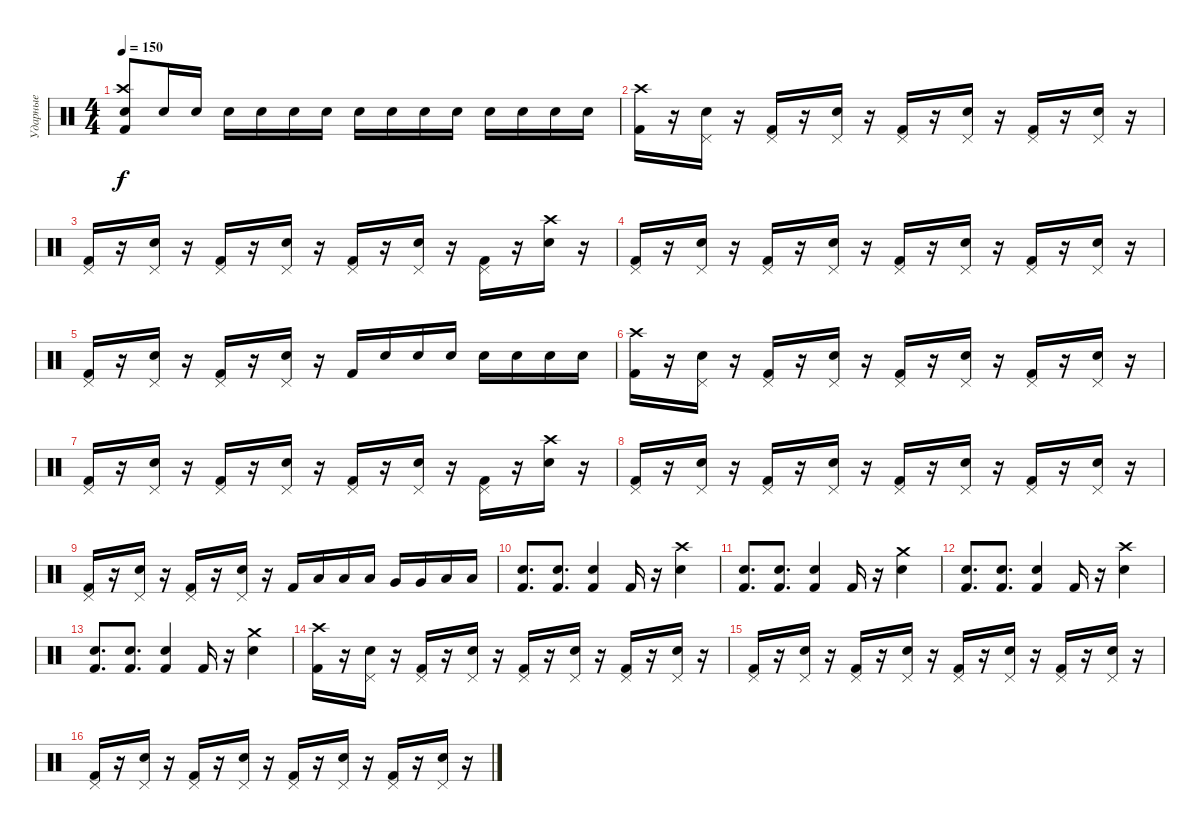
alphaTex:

\track ("Ударные" "Ударные") {instrument percussion}
\staff {score}
\articulation defaults
\ts (4 4)
\tempo 150
\clef neutral
\ks c
("Electric Snare (hit)" "Crash high (hit)" "Kick (hit) 2").8{dy f} "Electric Snare (hit)".16 "Electric Snare (hit)".16 "Electric Snare (hit)".16 "Electric Snare (hit)".16 "Electric Snare (hit)".16 "Electric Snare (hit)".16 "Electric Snare (hit)".16 "Electric Snare (hit)".16 "Electric Snare (hit)".16 "Electric Snare (hit)".16 "Electric Snare (hit)".16 "Electric Snare (hit)".16 "Electric Snare (hit)".16 "Electric Snare (hit)".16 |
("Kick (hit) 2" "Crash high (hit)").16 r.16 ("Electric Snare (hit)" "Pedal Hi-Hat (hit)").16 r.16 ("Kick (hit) 2" "Pedal Hi-Hat (hit)").16 r.16 ("Electric Snare (hit)" "Pedal Hi-Hat (hit)").16 r.16 ("Kick (hit) 2" "Pedal Hi-Hat (hit)").16 r.16 ("Electric Snare (hit)" "Pedal Hi-Hat (hit)").16 r.16 ("Kick (hit) 2" "Pedal Hi-Hat (hit)").16 r.16 ("Electric Snare (hit)" "Pedal Hi-Hat (hit)").16 r.16 |
("Kick (hit) 2" "Pedal Hi-Hat (hit)").16 r.16 ("Electric Snare (hit)" "Pedal Hi-Hat (hit)").16 r.16 ("Kick (hit) 2" "Pedal Hi-Hat (hit)").16 r.16 ("Electric Snare (hit)" "Pedal Hi-Hat (hit)").16 r.16 ("Kick (hit) 2" "Pedal Hi-Hat (hit)").16 r.16 ("Electric Snare (hit)" "Pedal Hi-Hat (hit)").16 r.16 ("Kick (hit) 2" "Pedal Hi-Hat (hit)").16 r.16 ("Electric Snare (hit)" "Crash high (hit)").16 r.16 |
("Kick (hit) 2" "Pedal Hi-Hat (hit)").16 r.16 ("Electric Snare (hit)" "Pedal Hi-Hat (hit)").16 r.16 ("Kick (hit) 2" "Pedal Hi-Hat (hit)").16 r.16 ("Electric Snare (hit)" "Pedal Hi-Hat (hit)").16 r.16 ("Kick (hit) 2" "Pedal Hi-Hat (hit)").16 r.16 ("Electric Snare (hit)" "Pedal Hi-Hat (hit)").16 r.16 ("Kick (hit) 2" "Pedal Hi-Hat (hit)").16 r.16 ("Electric Snare (hit)" "Pedal Hi-Hat (hit)").16 r.16 |
("Kick (hit) 2" "Pedal Hi-Hat (hit)").16 r.16 ("Electric Snare (hit)" "Pedal Hi-Hat (hit)").16 r.16 ("Kick (hit) 2" "Pedal Hi-Hat (hit)").16 r.16 ("Electric Snare (hit)" "Pedal Hi-Hat (hit)").16 r.16 "Kick (hit) 2".16 "Electric Snare (hit)".16 "Electric Snare (hit)".16 "Electric Snare (hit)".16 "Electric Snare (hit)".16 "Electric Snare (hit)".16 "Electric Snare (hit)".16 "Electric Snare (hit)".16 |
("Kick (hit) 2" "Crash high (hit)").16 r.16 ("Electric Snare (hit)" "Pedal Hi-Hat (hit)").16 r.16 ("Kick (hit) 2" "Pedal Hi-Hat (hit)").16 r.16 ("Electric Snare (hit)" "Pedal Hi-Hat (hit)").16 r.16 ("Kick (hit) 2" "Pedal Hi-Hat (hit)").16 r.16 ("Electric Snare (hit)" "Pedal Hi-Hat (hit)").16 r.16 ("Kick (hit) 2" "Pedal Hi-Hat (hit)").16 r.16 ("Electric Snare (hit)" "Pedal Hi-Hat (hit)").16 r.16 |
("Kick (hit) 2" "Pedal Hi-Hat (hit)").16 r.16 ("Electric Snare (hit)" "Pedal Hi-Hat (hit)").16 r.16 ("Kick (hit) 2" "Pedal Hi-Hat (hit)").16 r.16 ("Electric Snare (hit)" "Pedal Hi-Hat (hit)").16 r.16 ("Kick (hit) 2" "Pedal Hi-Hat (hit)").16 r.16 ("Electric Snare (hit)" "Pedal Hi-Hat (hit)").16 r.16 ("Kick (hit) 2" "Pedal Hi-Hat (hit)").16 r.16 ("Electric Snare (hit)" "Crash high (hit)").16 r.16 |
("Kick (hit) 2" "Pedal Hi-Hat (hit)").16 r.16 ("Electric Snare (hit)" "Pedal Hi-Hat (hit)").16 r.16 ("Kick (hit) 2" "Pedal Hi-Hat (hit)").16 r.16 ("Electric Snare (hit)" "Pedal Hi-Hat (hit)").16 r.16 ("Kick (hit) 2" "Pedal Hi-Hat (hit)").16 r.16 ("Electric Snare (hit)" "Pedal Hi-Hat (hit)").16 r.16 ("Kick (hit) 2" "Pedal Hi-Hat (hit)").16 r.16 ("Electric Snare (hit)" "Pedal Hi-Hat (hit)").16 r.16 |
("Kick (hit) 2" "Pedal Hi-Hat (hit)").16 r.16 ("Electric Snare (hit)" "Pedal Hi-Hat (hit)").16 r.16 ("Kick (hit) 2" "Pedal Hi-Hat (hit)").16 r.16 ("Electric Snare (hit)" "Pedal Hi-Hat (hit)").16 r.16 "Kick (hit) 2".16 "Low Tom (hit)".16 "Low Tom (hit)".16 "Low Tom (hit)".16 "Very Low Tom (hit)".16 "Very Low Tom (hit)".16 "Low Floor Tom (hit)".16 "Low Floor Tom (hit)".16 |
("Electric Snare (hit)" "Kick (hit) 2").8{d} ("Electric Snare (hit)" "Kick (hit) 2").8{d} ("Electric Snare (hit)" "Kick (hit) 2").4 "Kick (hit) 2".16 r.16 ("Electric Snare (hit)" "Crash high (hit)").4 |
("Electric Snare (hit)" "Kick (hit) 2").8{d} ("Electric Snare (hit)" "Kick (hit) 2").8{d} ("Electric Snare (hit)" "Kick (hit) 2").4 "Kick (hit) 2".16 r.16 ("Electric Snare (hit)" "Crash medium (hit)").4 |
("Electric Snare (hit)" "Kick (hit) 2").8{d} ("Electric Snare (hit)" "Kick (hit) 2").8{d} ("Electric Snare (hit)" "Kick (hit) 2").4 "Kick (hit) 2".16 r.16 ("Electric Snare (hit)" "Crash high (hit)").4 |
("Electric Snare (hit)" "Kick (hit) 2").8{d} ("Electric Snare (hit)" "Kick (hit) 2").8{d} ("Electric Snare (hit)" "Kick (hit) 2").4 "Kick (hit) 2".16 r.16 ("Electric Snare (hit)" "Crash medium (hit)").4 |
("Kick (hit) 2" "Crash high (hit)").16 r.16 ("Electric Snare (hit)" "Pedal Hi-Hat (hit)").16 r.16 ("Kick (hit) 2" "Pedal Hi-Hat (hit)").16 r.16 ("Electric Snare (hit)" "Pedal Hi-Hat (hit)").16 r.16 ("Kick (hit) 2" "Pedal Hi-Hat (hit)").16 r.16 ("Electric Snare (hit)" "Pedal Hi-Hat (hit)").16 r.16 ("Kick (hit) 2" "Pedal Hi-Hat (hit)").16 r.16 ("Electric Snare (hit)" "Pedal Hi-Hat (hit)").16 r.16 |
("Kick (hit) 2" "Pedal Hi-Hat (hit)").16 r.16 ("Electric Snare (hit)" "Pedal Hi-Hat (hit)").16 r.16 ("Kick (hit) 2" "Pedal Hi-Hat (hit)").16 r.16 ("Electric Snare (hit)" "Pedal Hi-Hat (hit)").16 r.16 ("Kick (hit) 2" "Pedal Hi-Hat (hit)").16 r.16 ("Electric Snare (hit)" "Pedal Hi-Hat (hit)").16 r.16 ("Kick (hit) 2" "Pedal Hi-Hat (hit)").16 r.16 ("Electric Snare (hit)" "Pedal Hi-Hat (hit)").16 r.16 |
("Kick (hit) 2" "Pedal Hi-Hat (hit)").16 r.16 ("Electric Snare (hit)" "Pedal Hi-Hat (hit)").16 r.16 ("Kick (hit) 2" "Pedal Hi-Hat (hit)").16 r.16 ("Electric Snare (hit)" "Pedal Hi-Hat (hit)").16 r.16 ("Kick (hit) 2" "Pedal Hi-Hat (hit)").16 r.16 ("Electric Snare (hit)" "Pedal Hi-Hat (hit)").16 r.16 ("Kick (hit) 2" "Pedal Hi-Hat (hit)").16 r.16 ("Electric Snare (hit)" "Pedal Hi-Hat (hit)").16 r.16
